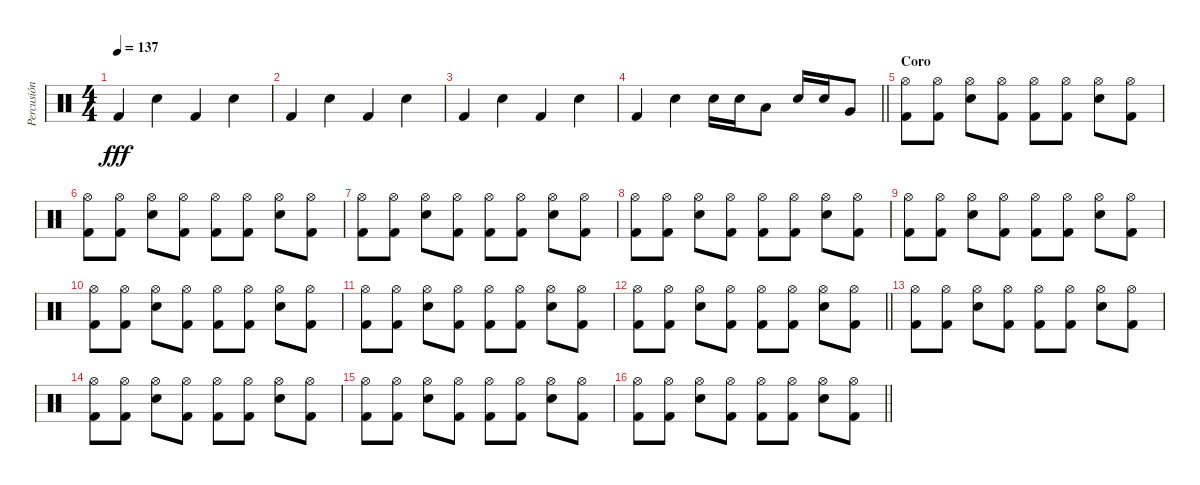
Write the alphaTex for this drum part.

\track ("Percusión" "Percusión") {instrument percussion}
\staff {score}
\articulation defaults
\ts (4 4)
\tempo 137
\clef neutral
\ks c "Kick (hit) 2".4{dy fff} "Electric Snare (hit)".4 "Kick (hit) 2".4 "Electric Snare (hit)".4
|
"Kick (hit) 2".4 "Electric Snare (hit)".4 "Kick (hit) 2".4 "Electric Snare (hit)".4 |
"Kick (hit) 2".4 "Electric Snare (hit)".4 "Kick (hit) 2".4 "Electric Snare (hit)".4 |
\barLineRight lightlight "Kick (hit) 2".4 "Electric Snare (hit)".4 "Snare (hit) 2".16 "Snare (hit) 2".16 "Low Floor Tom (hit)".8 "Snare (hit) 2".16 "Snare (hit) 2".16 "Very Low Tom (hit)".8
|
\section ("" "Coro")
("Hi-Hat (open)" "Kick (hit) 2").8 ("Hi-Hat (open)" "Kick (hit) 2").8 ("Hi-Hat (open)" "Electric Snare (hit)").8 ("Hi-Hat (open)" "Kick (hit) 2").8 ("Hi-Hat (open)" "Kick (hit) 2").8 ("Hi-Hat (open)" "Kick (hit) 2").8 ("Hi-Hat (open)" "Electric Snare (hit)").8 ("Hi-Hat (open)" "Kick (hit) 2").8 |
("Hi-Hat (open)" "Kick (hit) 2").8 ("Hi-Hat (open)" "Kick (hit) 2").8 ("Hi-Hat (open)" "Electric Snare (hit)").8 ("Hi-Hat (open)" "Kick (hit) 2").8 ("Hi-Hat (open)" "Kick (hit) 2").8 ("Hi-Hat (open)" "Kick (hit) 2").8 ("Hi-Hat (open)" "Electric Snare (hit)").8 ("Hi-Hat (open)" "Kick (hit) 2").8 |
("Hi-Hat (open)" "Kick (hit) 2").8 ("Hi-Hat (open)" "Kick (hit) 2").8 ("Hi-Hat (open)" "Electric Snare (hit)").8 ("Hi-Hat (open)" "Kick (hit) 2").8 ("Hi-Hat (open)" "Kick (hit) 2").8 ("Hi-Hat (open)" "Kick (hit) 2").8 ("Hi-Hat (open)" "Electric Snare (hit)").8 ("Hi-Hat (open)" "Kick (hit) 2").8 |
("Hi-Hat (open)" "Kick (hit) 2").8 ("Hi-Hat (open)" "Kick (hit) 2").8 ("Hi-Hat (open)" "Electric Snare (hit)").8 ("Hi-Hat (open)" "Kick (hit) 2").8 ("Hi-Hat (open)" "Kick (hit) 2").8 ("Hi-Hat (open)" "Kick (hit) 2").8 ("Hi-Hat (open)" "Electric Snare (hit)").8 ("Hi-Hat (open)" "Kick (hit) 2").8 |
("Hi-Hat (open)" "Kick (hit) 2").8 ("Hi-Hat (open)" "Kick (hit) 2").8 ("Hi-Hat (open)" "Electric Snare (hit)").8 ("Hi-Hat (open)" "Kick (hit) 2").8 ("Hi-Hat (open)" "Kick (hit) 2").8 ("Hi-Hat (open)" "Kick (hit) 2").8 ("Hi-Hat (open)" "Electric Snare (hit)").8 ("Hi-Hat (open)" "Kick (hit) 2").8 |
("Hi-Hat (open)" "Kick (hit) 2").8 ("Hi-Hat (open)" "Kick (hit) 2").8 ("Hi-Hat (open)" "Electric Snare (hit)").8 ("Hi-Hat (open)" "Kick (hit) 2").8 ("Hi-Hat (open)" "Kick (hit) 2").8 ("Hi-Hat (open)" "Kick (hit) 2").8 ("Hi-Hat (open)" "Electric Snare (hit)").8 ("Hi-Hat (open)" "Kick (hit) 2").8 |
("Hi-Hat (open)" "Kick (hit) 2").8 ("Hi-Hat (open)" "Kick (hit) 2").8 ("Hi-Hat (open)" "Electric Snare (hit)").8 ("Hi-Hat (open)" "Kick (hit) 2").8 ("Hi-Hat (open)" "Kick (hit) 2").8 ("Hi-Hat (open)" "Kick (hit) 2").8 ("Hi-Hat (open)" "Electric Snare (hit)").8 ("Hi-Hat (open)" "Kick (hit) 2").8 |
\barLineRight lightlight
("Hi-Hat (open)" "Kick (hit) 2").8 ("Hi-Hat (open)" "Kick (hit) 2").8 ("Hi-Hat (open)" "Electric Snare (hit)").8 ("Hi-Hat (open)" "Kick (hit) 2").8 ("Hi-Hat (open)" "Kick (hit) 2").8 ("Hi-Hat (open)" "Kick (hit) 2").8 ("Hi-Hat (open)" "Electric Snare (hit)").8 ("Hi-Hat (open)" "Kick (hit) 2").8 |
("Hi-Hat (open)" "Kick (hit) 2").8 ("Hi-Hat (open)" "Kick (hit) 2").8 ("Hi-Hat (open)" "Electric Snare (hit)").8 ("Hi-Hat (open)" "Kick (hit) 2").8 ("Hi-Hat (open)" "Kick (hit) 2").8 ("Hi-Hat (open)" "Kick (hit) 2").8 ("Hi-Hat (open)" "Electric Snare (hit)").8 ("Hi-Hat (open)" "Kick (hit) 2").8 |
("Hi-Hat (open)" "Kick (hit) 2").8 ("Hi-Hat (open)" "Kick (hit) 2").8 ("Hi-Hat (open)" "Electric Snare (hit)").8 ("Hi-Hat (open)" "Kick (hit) 2").8 ("Hi-Hat (open)" "Kick (hit) 2").8 ("Hi-Hat (open)" "Kick (hit) 2").8 ("Hi-Hat (open)" "Electric Snare (hit)").8 ("Hi-Hat (open)" "Kick (hit) 2").8 |
("Hi-Hat (open)" "Kick (hit) 2").8 ("Hi-Hat (open)" "Kick (hit) 2").8 ("Hi-Hat (open)" "Electric Snare (hit)").8 ("Hi-Hat (open)" "Kick (hit) 2").8 ("Hi-Hat (open)" "Kick (hit) 2").8 ("Hi-Hat (open)" "Kick (hit) 2").8 ("Hi-Hat (open)" "Electric Snare (hit)").8 ("Hi-Hat (open)" "Kick (hit) 2").8 |
\barLineRight lightlight
("Hi-Hat (open)" "Kick (hit) 2").8 ("Hi-Hat (open)" "Kick (hit) 2").8 ("Hi-Hat (open)" "Electric Snare (hit)").8 ("Hi-Hat (open)" "Kick (hit) 2").8 ("Hi-Hat (open)" "Kick (hit) 2").8 ("Hi-Hat (open)" "Kick (hit) 2").8 ("Hi-Hat (open)" "Electric Snare (hit)").8 ("Hi-Hat (open)" "Kick (hit) 2").8
